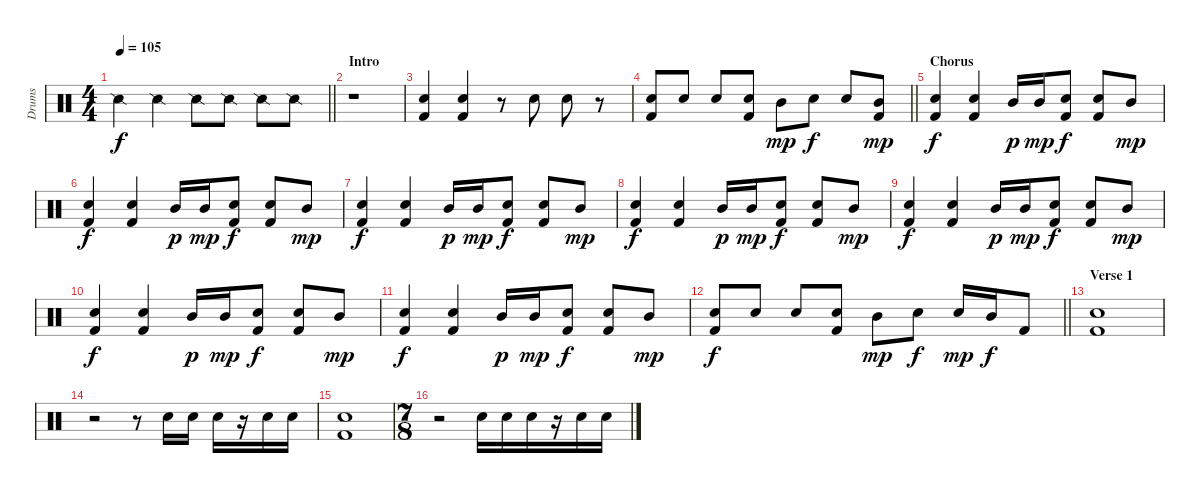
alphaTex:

\track ("Drums" "Drums") {instrument percussion}
\staff {score}
\articulation defaults
\ts (4 4)
\tempo 105
\clef neutral
\barLineRight lightlight
\ks c "Snare (side stick) 2".4{dy f} "Snare (side stick) 2".4 "Snare (side stick) 2".8 "Snare (side stick) 2".8 "Snare (side stick) 2".8 "Snare (side stick) 2".8
|
\section ("" "Intro")
r.1 |
("Snare (hit) 2" "Kick (hit) 2").4 ("Snare (hit) 2" "Kick (hit) 2").4 r.8 "Snare (hit) 2".8 "Snare (hit) 2".8 r.8 |
\barLineRight lightlight
("Snare (hit) 2" "Kick (hit) 2").8 "Snare (hit) 2".8 "Snare (hit) 2".8 ("Snare (hit) 2" "Kick (hit) 2").8 "Mid Tom (hit)".8{dy mp} "Snare (hit) 2".8{dy f} "Snare (hit) 2".8 ("Mid Tom (hit)" "Kick (hit) 2").8{dy mp} |
\section ("" "Chorus")
("Snare (hit) 2" "Kick (hit) 2").4{dy f} ("Snare (hit) 2" "Kick (hit) 2").4 "Mid Tom (hit)".16{dy p} "Mid Tom (hit)".16{dy mp} ("Snare (hit) 2" "Kick (hit) 2").8{dy f} ("Snare (hit) 2" "Kick (hit) 2").8 "Mid Tom (hit)".8{dy mp} |
("Snare (hit) 2" "Kick (hit) 2").4{dy f} ("Snare (hit) 2" "Kick (hit) 2").4 "Mid Tom (hit)".16{dy p} "Mid Tom (hit)".16{dy mp} ("Snare (hit) 2" "Kick (hit) 2").8{dy f} ("Snare (hit) 2" "Kick (hit) 2").8 "Mid Tom (hit)".8{dy mp} |
("Snare (hit) 2" "Kick (hit) 2").4{dy f} ("Snare (hit) 2" "Kick (hit) 2").4 "Mid Tom (hit)".16{dy p} "Mid Tom (hit)".16{dy mp} ("Snare (hit) 2" "Kick (hit) 2").8{dy f} ("Snare (hit) 2" "Kick (hit) 2").8 "Mid Tom (hit)".8{dy mp} |
("Snare (hit) 2" "Kick (hit) 2").4{dy f} ("Snare (hit) 2" "Kick (hit) 2").4 "Mid Tom (hit)".16{dy p} "Mid Tom (hit)".16{dy mp} ("Snare (hit) 2" "Kick (hit) 2").8{dy f} ("Snare (hit) 2" "Kick (hit) 2").8 "Mid Tom (hit)".8{dy mp} |
("Snare (hit) 2" "Kick (hit) 2").4{dy f} ("Snare (hit) 2" "Kick (hit) 2").4 "Mid Tom (hit)".16{dy p} "Mid Tom (hit)".16{dy mp} ("Snare (hit) 2" "Kick (hit) 2").8{dy f} ("Snare (hit) 2" "Kick (hit) 2").8 "Mid Tom (hit)".8{dy mp} |
("Snare (hit) 2" "Kick (hit) 2").4{dy f} ("Snare (hit) 2" "Kick (hit) 2").4 "Mid Tom (hit)".16{dy p} "Mid Tom (hit)".16{dy mp} ("Snare (hit) 2" "Kick (hit) 2").8{dy f} ("Snare (hit) 2" "Kick (hit) 2").8 "Mid Tom (hit)".8{dy mp} |
("Snare (hit) 2" "Kick (hit) 2").4{dy f} ("Snare (hit) 2" "Kick (hit) 2").4 "Mid Tom (hit)".16{dy p} "Mid Tom (hit)".16{dy mp} ("Snare (hit) 2" "Kick (hit) 2").8{dy f} ("Snare (hit) 2" "Kick (hit) 2").8 "Mid Tom (hit)".8{dy mp} |
\barLineRight lightlight
("Snare (hit) 2" "Kick (hit) 2").8{dy f} "Snare (hit) 2".8 "Snare (hit) 2".8 ("Snare (hit) 2" "Kick (hit) 2").8 "Mid Tom (hit)".8{dy mp} "Snare (hit) 2".8{dy f} "Snare (hit) 2".16{dy mp} "Mid Tom (hit)".16{dy f} "Kick (hit) 2".8 |
\section ("" "Verse 1")
("Snare (hit) 2" "Kick (hit) 2").1 |
r.2 r.8 "Snare (hit) 2".16 "Snare (hit) 2".16 "Snare (hit) 2".16 r.16 "Snare (hit) 2".16 "Snare (hit) 2".16 |
("Snare (hit) 2" "Kick (hit) 2").1 |
\ts (7 8)
r.2 "Snare (hit) 2".16 "Snare (hit) 2".16 "Snare (hit) 2".16 r.16 "Snare (hit) 2".16 "Snare (hit) 2".16
